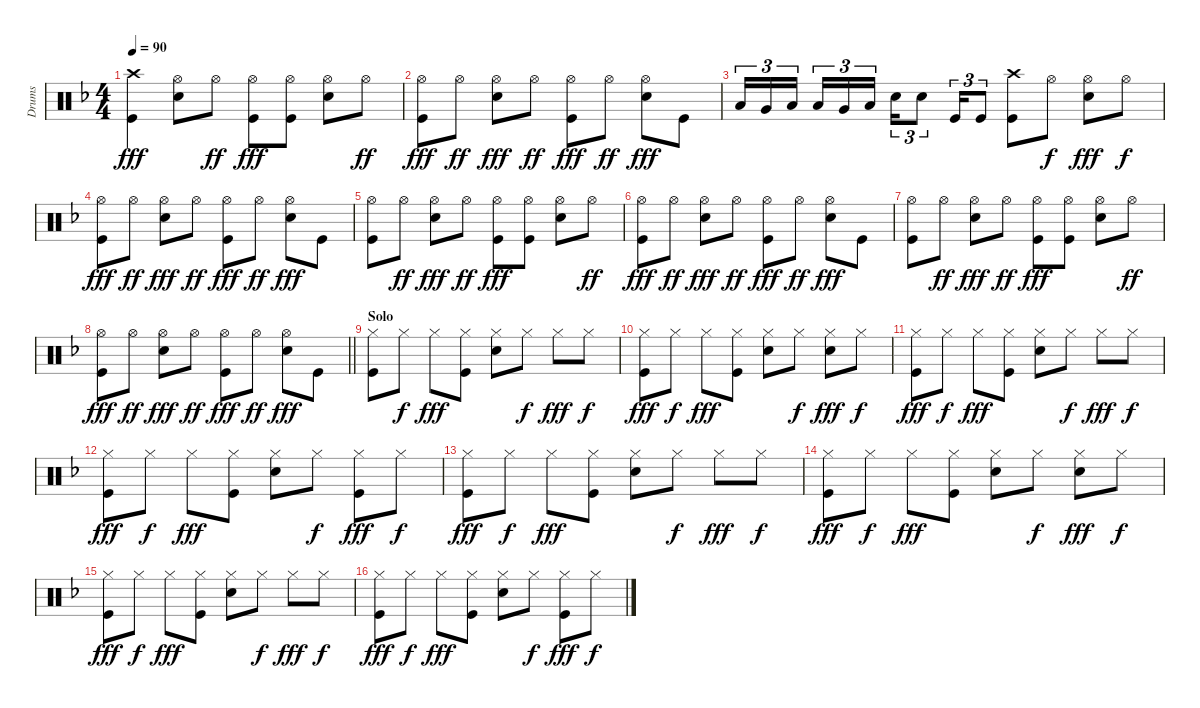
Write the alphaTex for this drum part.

\track ("Drums" "Drums") {instrument percussion}
\staff {score}
\articulation defaults
\ts (4 4)
\tempo 90
\clef neutral
\ks f
("Crash high (hit)" "Kick (hit)").4{dy fff} ("Hi-Hat (open)" "Snare (hit) 2").8 "Hi-Hat (open)".8{dy ff} ("Hi-Hat (open)" "Kick (hit)").8{dy fff} ("Hi-Hat (open)" "Kick (hit)").8 ("Hi-Hat (open)" "Snare (hit) 2").8 "Hi-Hat (open)".8{dy ff} |
("Hi-Hat (open)" "Kick (hit)").8{dy fff} "Hi-Hat (open)".8{dy ff} ("Hi-Hat (open)" "Snare (hit) 2").8{dy fff} "Hi-Hat (open)".8{dy ff} ("Hi-Hat (open)" "Kick (hit)").8{dy fff} "Hi-Hat (open)".8{dy ff} ("Hi-Hat (open)" "Snare (hit) 2").8{dy fff} "Kick (hit)".8 |
"Low Tom (hit)".16{tu (3 2)} "Very Low Tom (hit)".16{tu (3 2)} "Low Floor Tom (hit)".16{tu (3 2) beam splitsecondary} "Low Tom (hit)".16{tu (3 2)} "Very Low Tom (hit)".16{tu (3 2)} "Low Floor Tom (hit)".16{tu (3 2)} "Snare (hit) 2".16{tu (3 2)} "Snare (hit) 2".8{tu (3 2)} "Kick (hit)".16{tu (3 2)} "Kick (hit)".8{tu (3 2)} ("Crash high (hit)" "Kick (hit)").8 "Hi-Hat (open)".8{dy f} ("Hi-Hat (open)" "Snare (hit) 2").8{dy fff} "Hi-Hat (open)".8{dy f} |
("Hi-Hat (open)" "Kick (hit)").8{dy fff} "Hi-Hat (open)".8{dy ff} ("Hi-Hat (open)" "Snare (hit) 2").8{dy fff} "Hi-Hat (open)".8{dy ff} ("Hi-Hat (open)" "Kick (hit)").8{dy fff} "Hi-Hat (open)".8{dy ff} ("Hi-Hat (open)" "Snare (hit) 2").8{dy fff} "Kick (hit)".8 |
("Hi-Hat (open)" "Kick (hit)").8 "Hi-Hat (open)".8{dy ff} ("Hi-Hat (open)" "Snare (hit) 2").8{dy fff} "Hi-Hat (open)".8{dy ff} ("Hi-Hat (open)" "Kick (hit)").8{dy fff} ("Hi-Hat (open)" "Kick (hit)").8 ("Hi-Hat (open)" "Snare (hit) 2").8 "Hi-Hat (open)".8{dy ff} |
("Hi-Hat (open)" "Kick (hit)").8{dy fff} "Hi-Hat (open)".8{dy ff} ("Hi-Hat (open)" "Snare (hit) 2").8{dy fff} "Hi-Hat (open)".8{dy ff} ("Hi-Hat (open)" "Kick (hit)").8{dy fff} "Hi-Hat (open)".8{dy ff} ("Hi-Hat (open)" "Snare (hit) 2").8{dy fff} "Kick (hit)".8 |
("Hi-Hat (open)" "Kick (hit)").8 "Hi-Hat (open)".8{dy ff} ("Hi-Hat (open)" "Snare (hit) 2").8{dy fff} "Hi-Hat (open)".8{dy ff} ("Hi-Hat (open)" "Kick (hit)").8{dy fff} ("Hi-Hat (open)" "Kick (hit)").8 ("Hi-Hat (open)" "Snare (hit) 2").8 "Hi-Hat (open)".8{dy ff} |
\barLineRight lightlight
("Hi-Hat (open)" "Kick (hit)").8{dy fff} "Hi-Hat (open)".8{dy ff} ("Hi-Hat (open)" "Snare (hit) 2").8{dy fff} "Hi-Hat (open)".8{dy ff} ("Hi-Hat (open)" "Kick (hit)").8{dy fff} "Hi-Hat (open)".8{dy ff} ("Hi-Hat (open)" "Snare (hit) 2").8{dy fff} "Kick (hit)".8 |
\section ("" "Solo")
("Hi-Hat (closed)" "Kick (hit)").8 "Hi-Hat (closed)".8{dy f} "Hi-Hat (closed)".8{dy fff} ("Hi-Hat (closed)" "Kick (hit)").8 ("Hi-Hat (closed)" "Snare (hit) 2").8 "Hi-Hat (closed)".8{dy f} "Hi-Hat (closed)".8{dy fff} "Hi-Hat (closed)".8{dy f} |
("Hi-Hat (closed)" "Kick (hit)").8{dy fff} "Hi-Hat (closed)".8{dy f} "Hi-Hat (closed)".8{dy fff} ("Hi-Hat (closed)" "Kick (hit)").8 ("Hi-Hat (closed)" "Snare (hit) 2").8 "Hi-Hat (closed)".8{dy f} ("Hi-Hat (closed)" "Snare (hit) 2").8{dy fff} "Hi-Hat (closed)".8{dy f} |
("Hi-Hat (closed)" "Kick (hit)").8{dy fff} "Hi-Hat (closed)".8{dy f} "Hi-Hat (closed)".8{dy fff} ("Hi-Hat (closed)" "Kick (hit)").8 ("Hi-Hat (closed)" "Snare (hit) 2").8 "Hi-Hat (closed)".8{dy f} "Hi-Hat (closed)".8{dy fff} "Hi-Hat (closed)".8{dy f} |
("Hi-Hat (closed)" "Kick (hit)").8{dy fff} "Hi-Hat (closed)".8{dy f} "Hi-Hat (closed)".8{dy fff} ("Hi-Hat (closed)" "Kick (hit)").8 ("Hi-Hat (closed)" "Snare (hit) 2").8 "Hi-Hat (closed)".8{dy f} ("Hi-Hat (closed)" "Kick (hit)").8{dy fff} "Hi-Hat (closed)".8{dy f} |
("Hi-Hat (closed)" "Kick (hit)").8{dy fff} "Hi-Hat (closed)".8{dy f} "Hi-Hat (closed)".8{dy fff} ("Hi-Hat (closed)" "Kick (hit)").8 ("Hi-Hat (closed)" "Snare (hit) 2").8 "Hi-Hat (closed)".8{dy f} "Hi-Hat (closed)".8{dy fff} "Hi-Hat (closed)".8{dy f} |
("Hi-Hat (closed)" "Kick (hit)").8{dy fff} "Hi-Hat (closed)".8{dy f} "Hi-Hat (closed)".8{dy fff} ("Hi-Hat (closed)" "Kick (hit)").8 ("Hi-Hat (closed)" "Snare (hit) 2").8 "Hi-Hat (closed)".8{dy f} ("Hi-Hat (closed)" "Snare (hit) 2").8{dy fff} "Hi-Hat (closed)".8{dy f} |
("Hi-Hat (closed)" "Kick (hit)").8{dy fff} "Hi-Hat (closed)".8{dy f} "Hi-Hat (closed)".8{dy fff} ("Hi-Hat (closed)" "Kick (hit)").8 ("Hi-Hat (closed)" "Snare (hit) 2").8 "Hi-Hat (closed)".8{dy f} "Hi-Hat (closed)".8{dy fff} "Hi-Hat (closed)".8{dy f} |
("Hi-Hat (closed)" "Kick (hit)").8{dy fff} "Hi-Hat (closed)".8{dy f} "Hi-Hat (closed)".8{dy fff} ("Hi-Hat (closed)" "Kick (hit)").8 ("Hi-Hat (closed)" "Snare (hit) 2").8 "Hi-Hat (closed)".8{dy f} ("Hi-Hat (closed)" "Kick (hit)").8{dy fff} "Hi-Hat (closed)".8{dy f}
